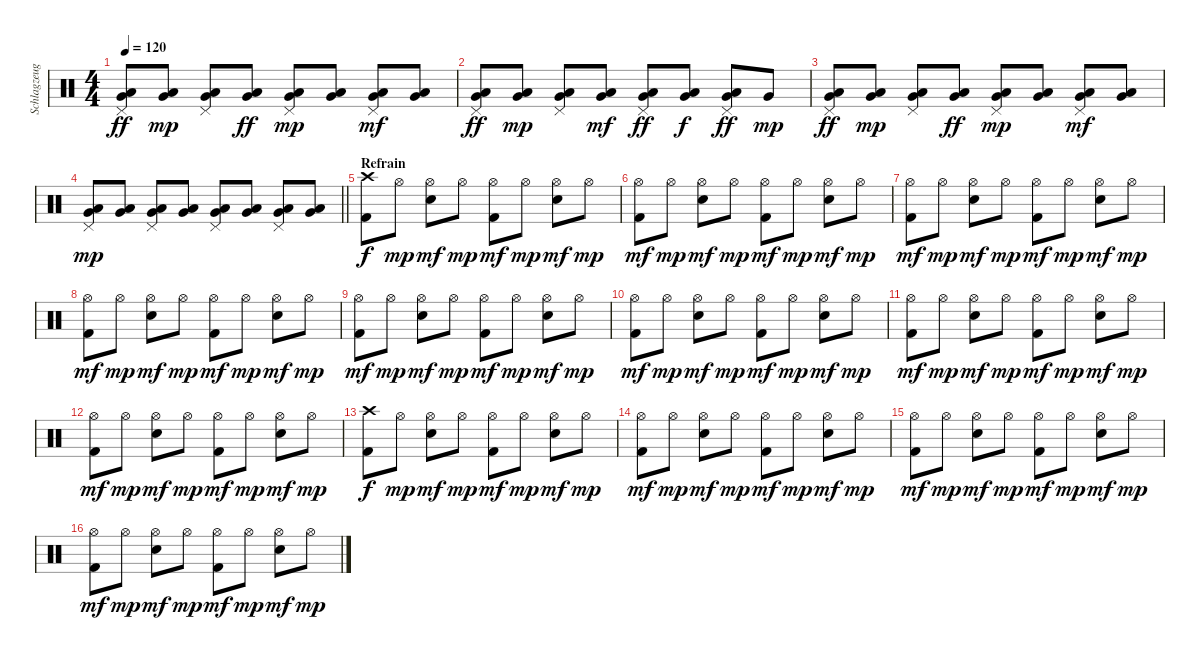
\track ("Schlagzeug" "Schlagzeug") {instrument percussion}
\staff {score}
\articulation defaults
\ts (4 4)
\tempo 120
\clef neutral
\ks c
("Pedal Hi-Hat (hit)" "Very Low Tom (hit)" "Low Floor Tom (hit)").8{dy ff} ("Very Low Tom (hit)" "Low Floor Tom (hit)").8{dy mp} ("Pedal Hi-Hat (hit)" "Very Low Tom (hit)" "Low Floor Tom (hit)").8 ("Very Low Tom (hit)" "Low Floor Tom (hit)").8{dy ff} ("Pedal Hi-Hat (hit)" "Very Low Tom (hit)" "Low Floor Tom (hit)").8{dy mp} ("Very Low Tom (hit)" "Low Floor Tom (hit)").8 ("Pedal Hi-Hat (hit)" "Very Low Tom (hit)" "Low Floor Tom (hit)").8{dy mf} ("Very Low Tom (hit)" "Low Floor Tom (hit)").8 |
("Pedal Hi-Hat (hit)" "Very Low Tom (hit)" "Low Floor Tom (hit)").8{dy ff} ("Very Low Tom (hit)" "Low Floor Tom (hit)").8{dy mp} ("Pedal Hi-Hat (hit)" "Very Low Tom (hit)" "Low Floor Tom (hit)").8 ("Very Low Tom (hit)" "Low Floor Tom (hit)").8{dy mf} ("Pedal Hi-Hat (hit)" "Very Low Tom (hit)" "Low Floor Tom (hit)").8{dy ff} ("Very Low Tom (hit)" "Low Floor Tom (hit)").8{dy f} ("Pedal Hi-Hat (hit)" "Very Low Tom (hit)" "Low Floor Tom (hit)").8{dy ff} "Very Low Tom (hit)".8{dy mp} |
("Pedal Hi-Hat (hit)" "Very Low Tom (hit)" "Low Floor Tom (hit)").8{dy ff} ("Very Low Tom (hit)" "Low Floor Tom (hit)").8{dy mp} ("Pedal Hi-Hat (hit)" "Very Low Tom (hit)" "Low Floor Tom (hit)").8 ("Very Low Tom (hit)" "Low Floor Tom (hit)").8{dy ff} ("Pedal Hi-Hat (hit)" "Very Low Tom (hit)" "Low Floor Tom (hit)").8{dy mp} ("Very Low Tom (hit)" "Low Floor Tom (hit)").8 ("Pedal Hi-Hat (hit)" "Very Low Tom (hit)" "Low Floor Tom (hit)").8{dy mf} ("Very Low Tom (hit)" "Low Floor Tom (hit)").8 |
\barLineRight lightlight
("Pedal Hi-Hat (hit)" "Very Low Tom (hit)" "Low Floor Tom (hit)").8{dy mp} ("Very Low Tom (hit)" "Low Floor Tom (hit)").8 ("Pedal Hi-Hat (hit)" "Very Low Tom (hit)" "Low Floor Tom (hit)").8 ("Very Low Tom (hit)" "Low Floor Tom (hit)").8 ("Pedal Hi-Hat (hit)" "Very Low Tom (hit)" "Low Floor Tom (hit)").8 ("Very Low Tom (hit)" "Low Floor Tom (hit)").8 ("Pedal Hi-Hat (hit)" "Very Low Tom (hit)" "Low Floor Tom (hit)").8 ("Very Low Tom (hit)" "Low Floor Tom (hit)").8 |
\section ("" "Refrain")
("Crash high (hit)" "Kick (hit) 2").8{dy f} "Hi-Hat (open)".8{dy mp} ("Hi-Hat (open)" "Electric Snare (hit)").8{dy mf} "Hi-Hat (open)".8{dy mp} ("Hi-Hat (open)" "Kick (hit) 2").8{dy mf} "Hi-Hat (open)".8{dy mp} ("Hi-Hat (open)" "Electric Snare (hit)").8{dy mf} "Hi-Hat (open)".8{dy mp} |
("Hi-Hat (open)" "Kick (hit) 2").8{dy mf} "Hi-Hat (open)".8{dy mp} ("Hi-Hat (open)" "Electric Snare (hit)").8{dy mf} "Hi-Hat (open)".8{dy mp} ("Hi-Hat (open)" "Kick (hit) 2").8{dy mf} "Hi-Hat (open)".8{dy mp} ("Hi-Hat (open)" "Electric Snare (hit)").8{dy mf} "Hi-Hat (open)".8{dy mp} |
("Hi-Hat (open)" "Kick (hit) 2").8{dy mf} "Hi-Hat (open)".8{dy mp} ("Hi-Hat (open)" "Electric Snare (hit)").8{dy mf} "Hi-Hat (open)".8{dy mp} ("Hi-Hat (open)" "Kick (hit) 2").8{dy mf} "Hi-Hat (open)".8{dy mp} ("Hi-Hat (open)" "Electric Snare (hit)").8{dy mf} "Hi-Hat (open)".8{dy mp} |
("Hi-Hat (open)" "Kick (hit) 2").8{dy mf} "Hi-Hat (open)".8{dy mp} ("Hi-Hat (open)" "Electric Snare (hit)").8{dy mf} "Hi-Hat (open)".8{dy mp} ("Hi-Hat (open)" "Kick (hit) 2").8{dy mf} "Hi-Hat (open)".8{dy mp} ("Hi-Hat (open)" "Electric Snare (hit)").8{dy mf} "Hi-Hat (open)".8{dy mp} |
("Hi-Hat (open)" "Kick (hit) 2").8{dy mf} "Hi-Hat (open)".8{dy mp} ("Hi-Hat (open)" "Electric Snare (hit)").8{dy mf} "Hi-Hat (open)".8{dy mp} ("Hi-Hat (open)" "Kick (hit) 2").8{dy mf} "Hi-Hat (open)".8{dy mp} ("Hi-Hat (open)" "Electric Snare (hit)").8{dy mf} "Hi-Hat (open)".8{dy mp} |
("Hi-Hat (open)" "Kick (hit) 2").8{dy mf} "Hi-Hat (open)".8{dy mp} ("Hi-Hat (open)" "Electric Snare (hit)").8{dy mf} "Hi-Hat (open)".8{dy mp} ("Hi-Hat (open)" "Kick (hit) 2").8{dy mf} "Hi-Hat (open)".8{dy mp} ("Hi-Hat (open)" "Electric Snare (hit)").8{dy mf} "Hi-Hat (open)".8{dy mp} |
("Hi-Hat (open)" "Kick (hit) 2").8{dy mf} "Hi-Hat (open)".8{dy mp} ("Hi-Hat (open)" "Electric Snare (hit)").8{dy mf} "Hi-Hat (open)".8{dy mp} ("Hi-Hat (open)" "Kick (hit) 2").8{dy mf} "Hi-Hat (open)".8{dy mp} ("Hi-Hat (open)" "Electric Snare (hit)").8{dy mf} "Hi-Hat (open)".8{dy mp} |
("Hi-Hat (open)" "Kick (hit) 2").8{dy mf} "Hi-Hat (open)".8{dy mp} ("Hi-Hat (open)" "Electric Snare (hit)").8{dy mf} "Hi-Hat (open)".8{dy mp} ("Hi-Hat (open)" "Kick (hit) 2").8{dy mf} "Hi-Hat (open)".8{dy mp} ("Hi-Hat (open)" "Electric Snare (hit)").8{dy mf} "Hi-Hat (open)".8{dy mp} |
("Crash high (hit)" "Kick (hit) 2").8{dy f} "Hi-Hat (open)".8{dy mp} ("Hi-Hat (open)" "Electric Snare (hit)").8{dy mf} "Hi-Hat (open)".8{dy mp} ("Hi-Hat (open)" "Kick (hit) 2").8{dy mf} "Hi-Hat (open)".8{dy mp} ("Hi-Hat (open)" "Electric Snare (hit)").8{dy mf} "Hi-Hat (open)".8{dy mp} |
("Hi-Hat (open)" "Kick (hit) 2").8{dy mf} "Hi-Hat (open)".8{dy mp} ("Hi-Hat (open)" "Electric Snare (hit)").8{dy mf} "Hi-Hat (open)".8{dy mp} ("Hi-Hat (open)" "Kick (hit) 2").8{dy mf} "Hi-Hat (open)".8{dy mp} ("Hi-Hat (open)" "Electric Snare (hit)").8{dy mf} "Hi-Hat (open)".8{dy mp} |
("Hi-Hat (open)" "Kick (hit) 2").8{dy mf} "Hi-Hat (open)".8{dy mp} ("Hi-Hat (open)" "Electric Snare (hit)").8{dy mf} "Hi-Hat (open)".8{dy mp} ("Hi-Hat (open)" "Kick (hit) 2").8{dy mf} "Hi-Hat (open)".8{dy mp} ("Hi-Hat (open)" "Electric Snare (hit)").8{dy mf} "Hi-Hat (open)".8{dy mp} |
("Hi-Hat (open)" "Kick (hit) 2").8{dy mf} "Hi-Hat (open)".8{dy mp} ("Hi-Hat (open)" "Electric Snare (hit)").8{dy mf} "Hi-Hat (open)".8{dy mp} ("Hi-Hat (open)" "Kick (hit) 2").8{dy mf} "Hi-Hat (open)".8{dy mp} ("Hi-Hat (open)" "Electric Snare (hit)").8{dy mf} "Hi-Hat (open)".8{dy mp}
